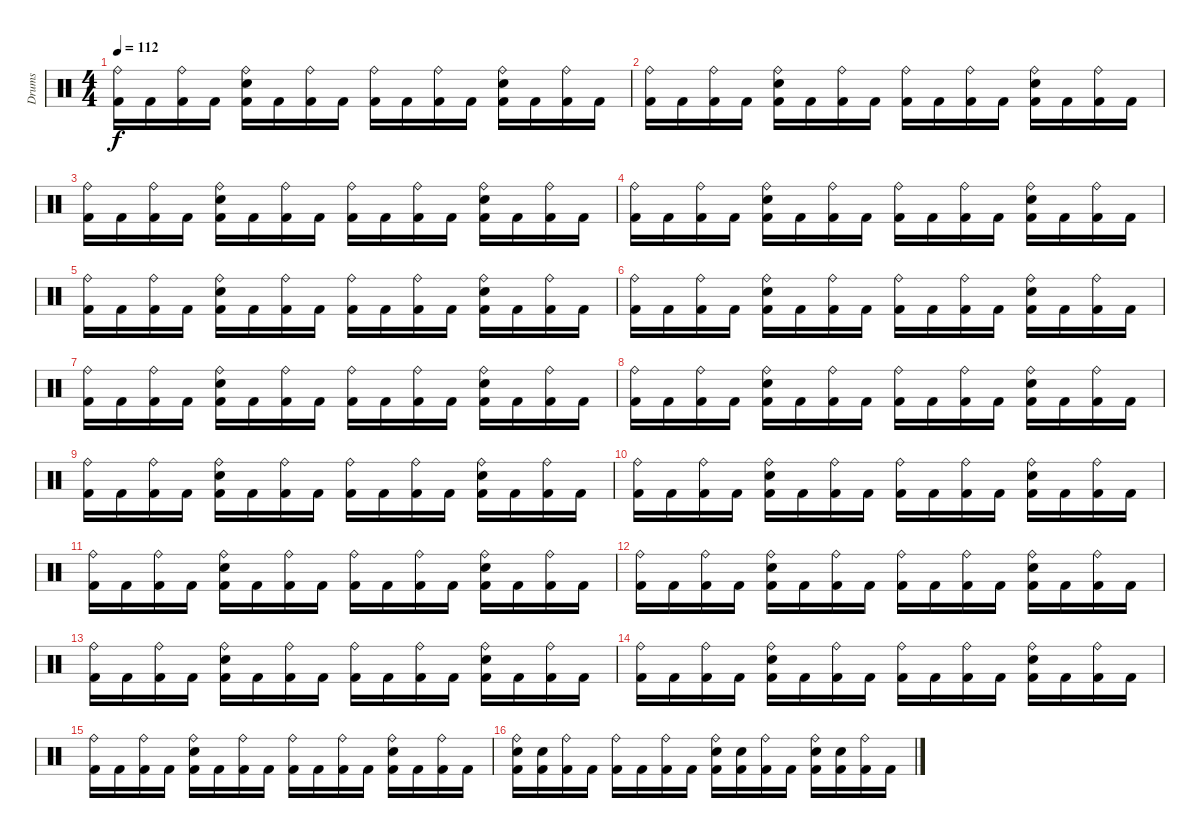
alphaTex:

\track ("Drums" "Drums") {instrument percussion}
\staff {score}
\articulation defaults
\ts (4 4)
\tempo 112
\clef neutral
\ks c
("Ride (bell)" "Kick (hit) 2").16{dy f} "Kick (hit) 2".16 ("Ride (bell)" "Kick (hit) 2").16 "Kick (hit) 2".16 ("Ride (bell)" "Electric Snare (hit)" "Kick (hit) 2").16 "Kick (hit) 2".16 ("Ride (bell)" "Kick (hit) 2").16 "Kick (hit) 2".16 ("Ride (bell)" "Kick (hit) 2").16 "Kick (hit) 2".16 ("Ride (bell)" "Kick (hit) 2").16 "Kick (hit) 2".16 ("Ride (bell)" "Electric Snare (hit)" "Kick (hit) 2").16 "Kick (hit) 2".16 ("Ride (bell)" "Kick (hit) 2").16 "Kick (hit) 2".16 |
("Ride (bell)" "Kick (hit) 2").16 "Kick (hit) 2".16 ("Ride (bell)" "Kick (hit) 2").16 "Kick (hit) 2".16 ("Ride (bell)" "Electric Snare (hit)" "Kick (hit) 2").16 "Kick (hit) 2".16 ("Ride (bell)" "Kick (hit) 2").16 "Kick (hit) 2".16 ("Ride (bell)" "Kick (hit) 2").16 "Kick (hit) 2".16 ("Ride (bell)" "Kick (hit) 2").16 "Kick (hit) 2".16 ("Ride (bell)" "Electric Snare (hit)" "Kick (hit) 2").16 "Kick (hit) 2".16 ("Ride (bell)" "Kick (hit) 2").16 "Kick (hit) 2".16 |
("Ride (bell)" "Kick (hit) 2").16 "Kick (hit) 2".16 ("Ride (bell)" "Kick (hit) 2").16 "Kick (hit) 2".16 ("Ride (bell)" "Electric Snare (hit)" "Kick (hit) 2").16 "Kick (hit) 2".16 ("Ride (bell)" "Kick (hit) 2").16 "Kick (hit) 2".16 ("Ride (bell)" "Kick (hit) 2").16 "Kick (hit) 2".16 ("Ride (bell)" "Kick (hit) 2").16 "Kick (hit) 2".16 ("Ride (bell)" "Electric Snare (hit)" "Kick (hit) 2").16 "Kick (hit) 2".16 ("Ride (bell)" "Kick (hit) 2").16 "Kick (hit) 2".16 |
("Ride (bell)" "Kick (hit) 2").16 "Kick (hit) 2".16 ("Ride (bell)" "Kick (hit) 2").16 "Kick (hit) 2".16 ("Ride (bell)" "Electric Snare (hit)" "Kick (hit) 2").16 "Kick (hit) 2".16 ("Ride (bell)" "Kick (hit) 2").16 "Kick (hit) 2".16 ("Ride (bell)" "Kick (hit) 2").16 "Kick (hit) 2".16 ("Ride (bell)" "Kick (hit) 2").16 "Kick (hit) 2".16 ("Ride (bell)" "Electric Snare (hit)" "Kick (hit) 2").16 "Kick (hit) 2".16 ("Ride (bell)" "Kick (hit) 2").16 "Kick (hit) 2".16 |
("Ride (bell)" "Kick (hit) 2").16 "Kick (hit) 2".16 ("Ride (bell)" "Kick (hit) 2").16 "Kick (hit) 2".16 ("Ride (bell)" "Electric Snare (hit)" "Kick (hit) 2").16 "Kick (hit) 2".16 ("Ride (bell)" "Kick (hit) 2").16 "Kick (hit) 2".16 ("Ride (bell)" "Kick (hit) 2").16 "Kick (hit) 2".16 ("Ride (bell)" "Kick (hit) 2").16 "Kick (hit) 2".16 ("Ride (bell)" "Electric Snare (hit)" "Kick (hit) 2").16 "Kick (hit) 2".16 ("Ride (bell)" "Kick (hit) 2").16 "Kick (hit) 2".16 |
("Ride (bell)" "Kick (hit) 2").16 "Kick (hit) 2".16 ("Ride (bell)" "Kick (hit) 2").16 "Kick (hit) 2".16 ("Ride (bell)" "Electric Snare (hit)" "Kick (hit) 2").16 "Kick (hit) 2".16 ("Ride (bell)" "Kick (hit) 2").16 "Kick (hit) 2".16 ("Ride (bell)" "Kick (hit) 2").16 "Kick (hit) 2".16 ("Ride (bell)" "Kick (hit) 2").16 "Kick (hit) 2".16 ("Ride (bell)" "Electric Snare (hit)" "Kick (hit) 2").16 "Kick (hit) 2".16 ("Ride (bell)" "Kick (hit) 2").16 "Kick (hit) 2".16 |
("Ride (bell)" "Kick (hit) 2").16 "Kick (hit) 2".16 ("Ride (bell)" "Kick (hit) 2").16 "Kick (hit) 2".16 ("Ride (bell)" "Electric Snare (hit)" "Kick (hit) 2").16 "Kick (hit) 2".16 ("Ride (bell)" "Kick (hit) 2").16 "Kick (hit) 2".16 ("Ride (bell)" "Kick (hit) 2").16 "Kick (hit) 2".16 ("Ride (bell)" "Kick (hit) 2").16 "Kick (hit) 2".16 ("Ride (bell)" "Electric Snare (hit)" "Kick (hit) 2").16 "Kick (hit) 2".16 ("Ride (bell)" "Kick (hit) 2").16 "Kick (hit) 2".16 |
("Ride (bell)" "Kick (hit) 2").16 "Kick (hit) 2".16 ("Ride (bell)" "Kick (hit) 2").16 "Kick (hit) 2".16 ("Ride (bell)" "Electric Snare (hit)" "Kick (hit) 2").16 "Kick (hit) 2".16 ("Ride (bell)" "Kick (hit) 2").16 "Kick (hit) 2".16 ("Ride (bell)" "Kick (hit) 2").16 "Kick (hit) 2".16 ("Ride (bell)" "Kick (hit) 2").16 "Kick (hit) 2".16 ("Ride (bell)" "Electric Snare (hit)" "Kick (hit) 2").16 "Kick (hit) 2".16 ("Ride (bell)" "Kick (hit) 2").16 "Kick (hit) 2".16 |
("Ride (bell)" "Kick (hit) 2").16 "Kick (hit) 2".16 ("Ride (bell)" "Kick (hit) 2").16 "Kick (hit) 2".16 ("Ride (bell)" "Electric Snare (hit)" "Kick (hit) 2").16 "Kick (hit) 2".16 ("Ride (bell)" "Kick (hit) 2").16 "Kick (hit) 2".16 ("Ride (bell)" "Kick (hit) 2").16 "Kick (hit) 2".16 ("Ride (bell)" "Kick (hit) 2").16 "Kick (hit) 2".16 ("Ride (bell)" "Electric Snare (hit)" "Kick (hit) 2").16 "Kick (hit) 2".16 ("Ride (bell)" "Kick (hit) 2").16 "Kick (hit) 2".16 |
("Ride (bell)" "Kick (hit) 2").16 "Kick (hit) 2".16 ("Ride (bell)" "Kick (hit) 2").16 "Kick (hit) 2".16 ("Ride (bell)" "Electric Snare (hit)" "Kick (hit) 2").16 "Kick (hit) 2".16 ("Ride (bell)" "Kick (hit) 2").16 "Kick (hit) 2".16 ("Ride (bell)" "Kick (hit) 2").16 "Kick (hit) 2".16 ("Ride (bell)" "Kick (hit) 2").16 "Kick (hit) 2".16 ("Ride (bell)" "Electric Snare (hit)" "Kick (hit) 2").16 "Kick (hit) 2".16 ("Ride (bell)" "Kick (hit) 2").16 "Kick (hit) 2".16 |
("Ride (bell)" "Kick (hit) 2").16 "Kick (hit) 2".16 ("Ride (bell)" "Kick (hit) 2").16 "Kick (hit) 2".16 ("Ride (bell)" "Electric Snare (hit)" "Kick (hit) 2").16 "Kick (hit) 2".16 ("Ride (bell)" "Kick (hit) 2").16 "Kick (hit) 2".16 ("Ride (bell)" "Kick (hit) 2").16 "Kick (hit) 2".16 ("Ride (bell)" "Kick (hit) 2").16 "Kick (hit) 2".16 ("Ride (bell)" "Electric Snare (hit)" "Kick (hit) 2").16 "Kick (hit) 2".16 ("Ride (bell)" "Kick (hit) 2").16 "Kick (hit) 2".16 |
("Ride (bell)" "Kick (hit) 2").16 "Kick (hit) 2".16 ("Ride (bell)" "Kick (hit) 2").16 "Kick (hit) 2".16 ("Ride (bell)" "Electric Snare (hit)" "Kick (hit) 2").16 "Kick (hit) 2".16 ("Ride (bell)" "Kick (hit) 2").16 "Kick (hit) 2".16 ("Ride (bell)" "Kick (hit) 2").16 "Kick (hit) 2".16 ("Ride (bell)" "Kick (hit) 2").16 "Kick (hit) 2".16 ("Ride (bell)" "Electric Snare (hit)" "Kick (hit) 2").16 "Kick (hit) 2".16 ("Ride (bell)" "Kick (hit) 2").16 "Kick (hit) 2".16 |
("Ride (bell)" "Kick (hit) 2").16 "Kick (hit) 2".16 ("Ride (bell)" "Kick (hit) 2").16 "Kick (hit) 2".16 ("Ride (bell)" "Electric Snare (hit)" "Kick (hit) 2").16 "Kick (hit) 2".16 ("Ride (bell)" "Kick (hit) 2").16 "Kick (hit) 2".16 ("Ride (bell)" "Kick (hit) 2").16 "Kick (hit) 2".16 ("Ride (bell)" "Kick (hit) 2").16 "Kick (hit) 2".16 ("Ride (bell)" "Electric Snare (hit)" "Kick (hit) 2").16 "Kick (hit) 2".16 ("Ride (bell)" "Kick (hit) 2").16 "Kick (hit) 2".16 |
("Ride (bell)" "Kick (hit) 2").16 "Kick (hit) 2".16 ("Ride (bell)" "Kick (hit) 2").16 "Kick (hit) 2".16 ("Ride (bell)" "Electric Snare (hit)" "Kick (hit) 2").16 "Kick (hit) 2".16 ("Ride (bell)" "Kick (hit) 2").16 "Kick (hit) 2".16 ("Ride (bell)" "Kick (hit) 2").16 "Kick (hit) 2".16 ("Ride (bell)" "Kick (hit) 2").16 "Kick (hit) 2".16 ("Ride (bell)" "Electric Snare (hit)" "Kick (hit) 2").16 "Kick (hit) 2".16 ("Ride (bell)" "Kick (hit) 2").16 "Kick (hit) 2".16 |
("Ride (bell)" "Kick (hit) 2").16 "Kick (hit) 2".16 ("Ride (bell)" "Kick (hit) 2").16 "Kick (hit) 2".16 ("Ride (bell)" "Electric Snare (hit)" "Kick (hit) 2").16 "Kick (hit) 2".16 ("Ride (bell)" "Kick (hit) 2").16 "Kick (hit) 2".16 ("Ride (bell)" "Kick (hit) 2").16 "Kick (hit) 2".16 ("Ride (bell)" "Kick (hit) 2").16 "Kick (hit) 2".16 ("Ride (bell)" "Electric Snare (hit)" "Kick (hit) 2").16 "Kick (hit) 2".16 ("Ride (bell)" "Kick (hit) 2").16 "Kick (hit) 2".16 |
("Ride (bell)" "Electric Snare (hit)" "Kick (hit) 2").16 ("Electric Snare (hit)" "Kick (hit) 2").16 ("Ride (bell)" "Kick (hit) 2").16 "Kick (hit) 2".16 ("Ride (bell)" "Kick (hit) 2").16 "Kick (hit) 2".16 ("Ride (bell)" "Kick (hit) 2").16 "Kick (hit) 2".16 ("Ride (bell)" "Electric Snare (hit)" "Kick (hit) 2").16 ("Electric Snare (hit)" "Kick (hit) 2").16 ("Ride (bell)" "Kick (hit) 2").16 "Kick (hit) 2".16 ("Ride (bell)" "Electric Snare (hit)" "Kick (hit) 2").16 ("Electric Snare (hit)" "Kick (hit) 2").16 ("Ride (bell)" "Kick (hit) 2").16 "Kick (hit) 2".16
